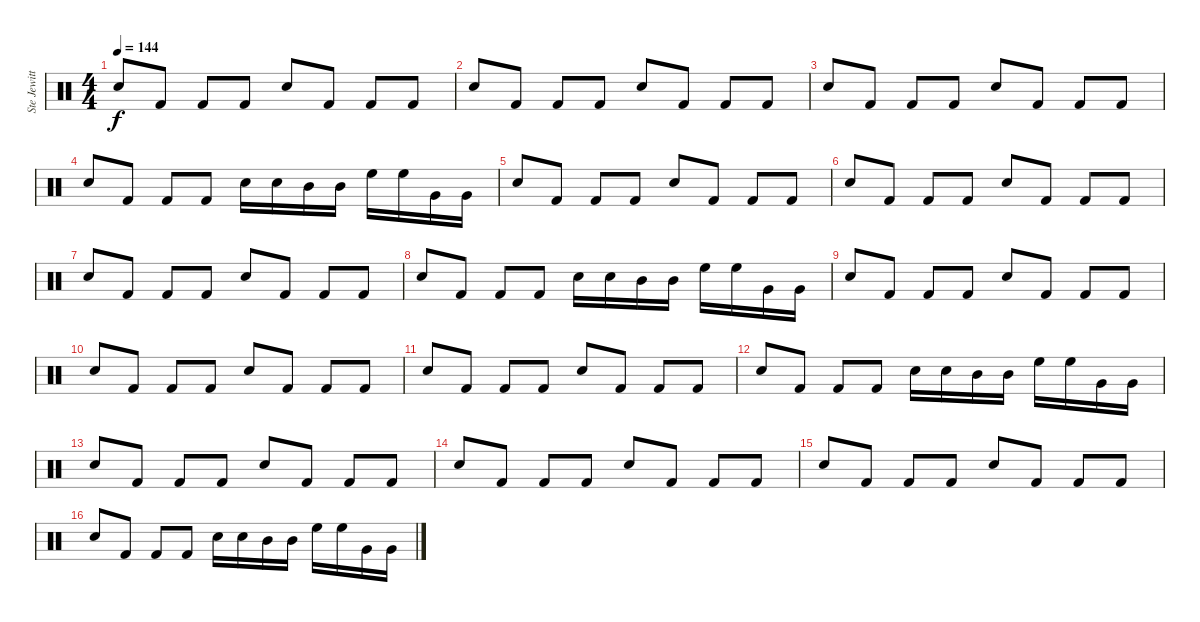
\track ("Ste Jewitt (Drummer)" "Ste Jewitt") {instrument percussion}
\staff {score}
\articulation defaults
\ts (4 4)
\tempo 144
\clef neutral
\ks c "Snare (hit) 2".8{dy f} "Kick (hit) 2".8 "Kick (hit) 2".8 "Kick (hit) 2".8 "Snare (hit) 2".8 "Kick (hit) 2".8 "Kick (hit) 2".8 "Kick (hit) 2".8
|
"Snare (hit) 2".8 "Kick (hit) 2".8 "Kick (hit) 2".8 "Kick (hit) 2".8 "Snare (hit) 2".8 "Kick (hit) 2".8 "Kick (hit) 2".8 "Kick (hit) 2".8 |
"Snare (hit) 2".8 "Kick (hit) 2".8 "Kick (hit) 2".8 "Kick (hit) 2".8 "Snare (hit) 2".8 "Kick (hit) 2".8 "Kick (hit) 2".8 "Kick (hit) 2".8 |
"Snare (hit) 2".8 "Kick (hit) 2".8 "Kick (hit) 2".8 "Kick (hit) 2".8 "Snare (hit) 2".16 "Snare (hit) 2".16 "Mid Tom (hit)".16 "Mid Tom (hit)".16 "High Floor Tom (hit)".16 "High Floor Tom (hit)".16 "Very Low Tom (hit)".16 "Very Low Tom (hit)".16 |
"Snare (hit) 2".8 "Kick (hit) 2".8 "Kick (hit) 2".8 "Kick (hit) 2".8 "Snare (hit) 2".8 "Kick (hit) 2".8 "Kick (hit) 2".8 "Kick (hit) 2".8 |
"Snare (hit) 2".8 "Kick (hit) 2".8 "Kick (hit) 2".8 "Kick (hit) 2".8 "Snare (hit) 2".8 "Kick (hit) 2".8 "Kick (hit) 2".8 "Kick (hit) 2".8 |
"Snare (hit) 2".8 "Kick (hit) 2".8 "Kick (hit) 2".8 "Kick (hit) 2".8 "Snare (hit) 2".8 "Kick (hit) 2".8 "Kick (hit) 2".8 "Kick (hit) 2".8 |
"Snare (hit) 2".8 "Kick (hit) 2".8 "Kick (hit) 2".8 "Kick (hit) 2".8 "Snare (hit) 2".16 "Snare (hit) 2".16 "Mid Tom (hit)".16 "Mid Tom (hit)".16 "High Floor Tom (hit)".16 "High Floor Tom (hit)".16 "Very Low Tom (hit)".16 "Very Low Tom (hit)".16 |
"Snare (hit) 2".8 "Kick (hit) 2".8 "Kick (hit) 2".8 "Kick (hit) 2".8 "Snare (hit) 2".8 "Kick (hit) 2".8 "Kick (hit) 2".8 "Kick (hit) 2".8 |
"Snare (hit) 2".8 "Kick (hit) 2".8 "Kick (hit) 2".8 "Kick (hit) 2".8 "Snare (hit) 2".8 "Kick (hit) 2".8 "Kick (hit) 2".8 "Kick (hit) 2".8 |
"Snare (hit) 2".8 "Kick (hit) 2".8 "Kick (hit) 2".8 "Kick (hit) 2".8 "Snare (hit) 2".8 "Kick (hit) 2".8 "Kick (hit) 2".8 "Kick (hit) 2".8 |
"Snare (hit) 2".8 "Kick (hit) 2".8 "Kick (hit) 2".8 "Kick (hit) 2".8 "Snare (hit) 2".16 "Snare (hit) 2".16 "Mid Tom (hit)".16 "Mid Tom (hit)".16 "High Floor Tom (hit)".16 "High Floor Tom (hit)".16 "Very Low Tom (hit)".16 "Very Low Tom (hit)".16 |
"Snare (hit) 2".8 "Kick (hit) 2".8 "Kick (hit) 2".8 "Kick (hit) 2".8 "Snare (hit) 2".8 "Kick (hit) 2".8 "Kick (hit) 2".8 "Kick (hit) 2".8 |
"Snare (hit) 2".8 "Kick (hit) 2".8 "Kick (hit) 2".8 "Kick (hit) 2".8 "Snare (hit) 2".8 "Kick (hit) 2".8 "Kick (hit) 2".8 "Kick (hit) 2".8 |
"Snare (hit) 2".8 "Kick (hit) 2".8 "Kick (hit) 2".8 "Kick (hit) 2".8 "Snare (hit) 2".8 "Kick (hit) 2".8 "Kick (hit) 2".8 "Kick (hit) 2".8 |
"Snare (hit) 2".8 "Kick (hit) 2".8 "Kick (hit) 2".8 "Kick (hit) 2".8 "Snare (hit) 2".16 "Snare (hit) 2".16 "Mid Tom (hit)".16 "Mid Tom (hit)".16 "High Floor Tom (hit)".16 "High Floor Tom (hit)".16 "Very Low Tom (hit)".16 "Very Low Tom (hit)".16
